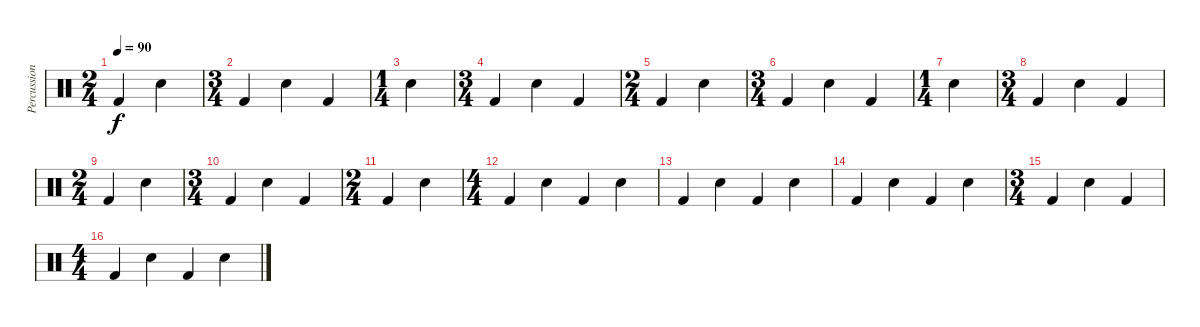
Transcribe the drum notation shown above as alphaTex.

\track ("Percussion" "Percussion") {instrument percussion}
\staff {score}
\articulation defaults
\ts (2 4)
\tempo 90
\clef neutral
\ks c "Kick (hit) 2".4{dy f} "Snare (hit) 2".4
|
\ts (3 4)
"Kick (hit) 2".4 "Snare (hit) 2".4 "Kick (hit) 2".4 |
\ts (1 4)
"Snare (hit) 2".4 |
\ts (3 4)
"Kick (hit) 2".4 "Snare (hit) 2".4 "Kick (hit) 2".4 |
\ts (2 4)
"Kick (hit) 2".4 "Snare (hit) 2".4 |
\ts (3 4)
"Kick (hit) 2".4 "Snare (hit) 2".4 "Kick (hit) 2".4 |
\ts (1 4)
"Snare (hit) 2".4 |
\ts (3 4)
"Kick (hit) 2".4 "Snare (hit) 2".4 "Kick (hit) 2".4 |
\ts (2 4)
"Kick (hit) 2".4 "Snare (hit) 2".4 |
\ts (3 4)
"Kick (hit) 2".4 "Snare (hit) 2".4 "Kick (hit) 2".4 |
\ts (2 4)
"Kick (hit) 2".4 "Snare (hit) 2".4 |
\ts (4 4)
"Kick (hit) 2".4 "Snare (hit) 2".4 "Kick (hit) 2".4 "Snare (hit) 2".4 |
"Kick (hit) 2".4 "Snare (hit) 2".4 "Kick (hit) 2".4 "Snare (hit) 2".4 |
"Kick (hit) 2".4 "Snare (hit) 2".4 "Kick (hit) 2".4 "Snare (hit) 2".4 |
\ts (3 4)
"Kick (hit) 2".4 "Snare (hit) 2".4 "Kick (hit) 2".4 |
\ts (4 4)
"Kick (hit) 2".4 "Snare (hit) 2".4 "Kick (hit) 2".4 "Snare (hit) 2".4
